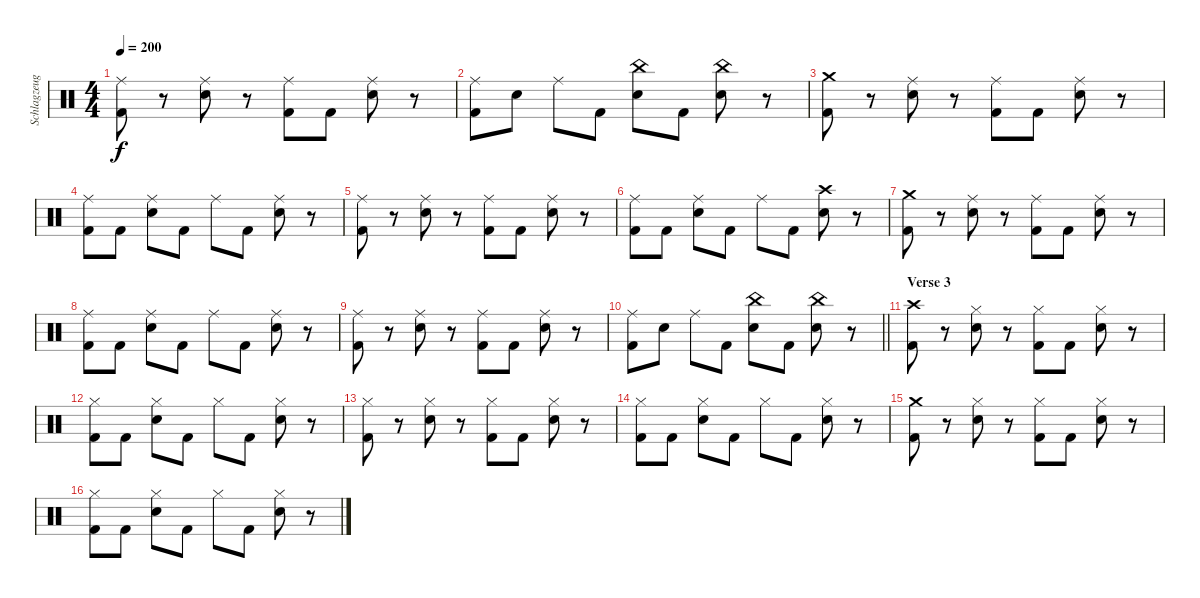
\track ("Schlagzeug" "Schlagzeug") {instrument percussion}
\staff {score}
\articulation defaults
\ts (4 4)
\tempo 200
\clef neutral
\ks c
("Ride (middle)" "Kick (hit) 2").8{dy f} r.8 ("Ride (middle)" "Electric Snare (hit)").8 r.8 ("Ride (middle)" "Kick (hit) 2").8 "Kick (hit) 2".8 ("Ride (middle)" "Electric Snare (hit)").8 r.8 |
("Ride (middle)" "Kick (hit) 2").8 "Electric Snare (hit)".8 "Ride (middle)".8 "Kick (hit) 2".8 ("China (hit)" "Electric Snare (hit)").8 "Kick (hit) 2".8 ("China (hit)" "Electric Snare (hit)").8 r.8 |
("Crash medium (hit)" "Kick (hit) 2").8 r.8 ("Ride (middle)" "Electric Snare (hit)").8 r.8 ("Ride (middle)" "Kick (hit) 2").8 "Kick (hit) 2".8 ("Ride (middle)" "Electric Snare (hit)").8 r.8 |
("Ride (middle)" "Kick (hit) 2").8 "Kick (hit) 2".8 ("Ride (middle)" "Electric Snare (hit)").8 "Kick (hit) 2".8 "Ride (middle)".8 "Kick (hit) 2".8 ("Ride (middle)" "Electric Snare (hit)").8 r.8 |
("Ride (middle)" "Kick (hit) 2").8 r.8 ("Ride (middle)" "Electric Snare (hit)").8 r.8 ("Ride (middle)" "Kick (hit) 2").8 "Kick (hit) 2".8 ("Ride (middle)" "Electric Snare (hit)").8 r.8 |
("Ride (middle)" "Kick (hit) 2").8 "Kick (hit) 2".8 ("Ride (middle)" "Electric Snare (hit)").8 "Kick (hit) 2".8 "Ride (middle)".8 "Kick (hit) 2".8 ("Crash high (hit)" "Electric Snare (hit)").8 r.8 |
("Crash medium (hit)" "Kick (hit) 2").8 r.8 ("Ride (middle)" "Electric Snare (hit)").8 r.8 ("Ride (middle)" "Kick (hit) 2").8 "Kick (hit) 2".8 ("Ride (middle)" "Electric Snare (hit)").8 r.8 |
("Ride (middle)" "Kick (hit) 2").8 "Kick (hit) 2".8 ("Ride (middle)" "Electric Snare (hit)").8 "Kick (hit) 2".8 "Ride (middle)".8 "Kick (hit) 2".8 ("Ride (middle)" "Electric Snare (hit)").8 r.8 |
("Ride (middle)" "Kick (hit) 2").8 r.8 ("Ride (middle)" "Electric Snare (hit)").8 r.8 ("Ride (middle)" "Kick (hit) 2").8 "Kick (hit) 2".8 ("Ride (middle)" "Electric Snare (hit)").8 r.8 |
\barLineRight lightlight
("Ride (middle)" "Kick (hit) 2").8 "Electric Snare (hit)".8 "Ride (middle)".8 "Kick (hit) 2".8 ("China (hit)" "Electric Snare (hit)").8 "Kick (hit) 2".8 ("China (hit)" "Electric Snare (hit)").8 r.8 |
\section ("" "Verse 3")
("Crash high (hit)" "Kick (hit) 2").8 r.8 ("Hi-Hat (closed)" "Electric Snare (hit)").8 r.8 ("Hi-Hat (closed)" "Kick (hit) 2").8 "Kick (hit) 2".8 ("Hi-Hat (closed)" "Electric Snare (hit)").8 r.8 |
("Hi-Hat (closed)" "Kick (hit) 2").8 "Kick (hit) 2".8 ("Hi-Hat (closed)" "Electric Snare (hit)").8 "Kick (hit) 2".8 "Hi-Hat (closed)".8 "Kick (hit) 2".8 ("Hi-Hat (closed)" "Electric Snare (hit)").8 r.8 |
("Hi-Hat (closed)" "Kick (hit) 2").8 r.8 ("Hi-Hat (closed)" "Electric Snare (hit)").8 r.8 ("Hi-Hat (closed)" "Kick (hit) 2").8 "Kick (hit) 2".8 ("Hi-Hat (closed)" "Electric Snare (hit)").8 r.8 |
("Hi-Hat (closed)" "Kick (hit) 2").8 "Kick (hit) 2".8 ("Hi-Hat (closed)" "Electric Snare (hit)").8 "Kick (hit) 2".8 "Hi-Hat (closed)".8 "Kick (hit) 2".8 ("Hi-Hat (closed)" "Electric Snare (hit)").8 r.8 |
("Crash medium (hit)" "Kick (hit) 2").8 r.8 ("Hi-Hat (closed)" "Electric Snare (hit)").8 r.8 ("Hi-Hat (closed)" "Kick (hit) 2").8 "Kick (hit) 2".8 ("Hi-Hat (closed)" "Electric Snare (hit)").8 r.8 |
("Hi-Hat (closed)" "Kick (hit) 2").8 "Kick (hit) 2".8 ("Hi-Hat (closed)" "Electric Snare (hit)").8 "Kick (hit) 2".8 "Hi-Hat (closed)".8 "Kick (hit) 2".8 ("Hi-Hat (closed)" "Electric Snare (hit)").8 r.8
